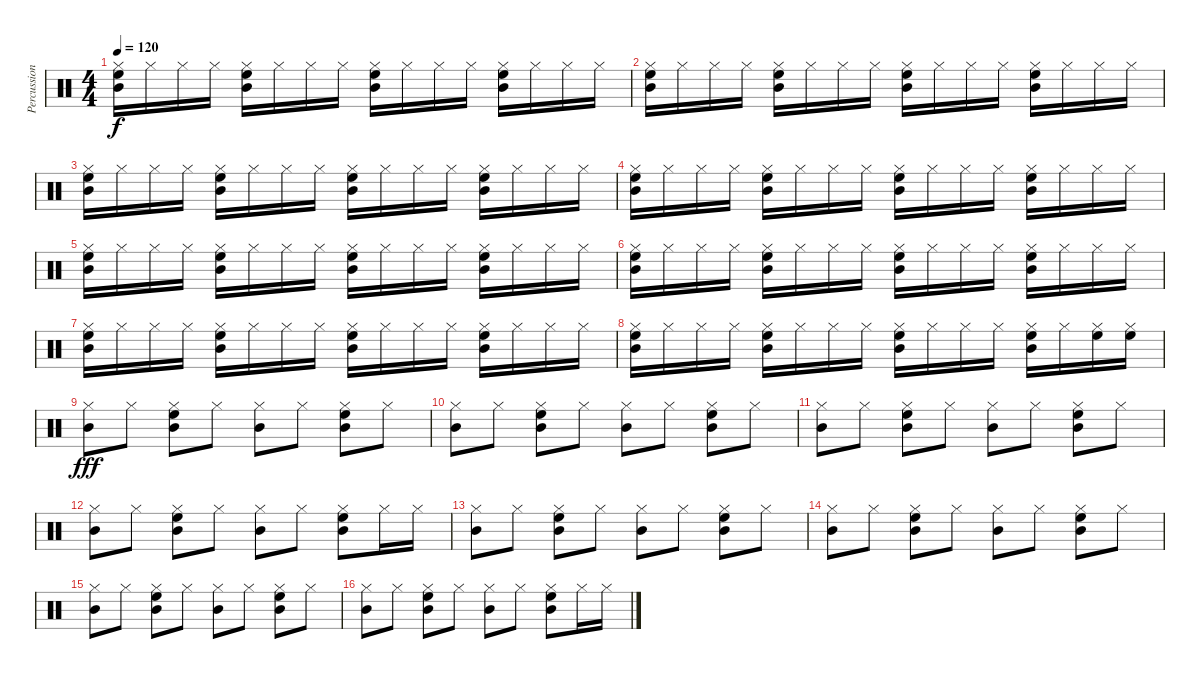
\track ("Percussion" "Percussion") {instrument percussion}
\staff {score}
\articulation defaults
\ts (4 4)
\tempo 120
\clef neutral
\ks c
("Hi-Hat (closed)" "Mid Tom (hit)" "High Floor Tom (hit)").16{dy f} "Hi-Hat (closed)".16 "Hi-Hat (closed)".16 "Hi-Hat (closed)".16 ("Hi-Hat (closed)" "Mid Tom (hit)" "High Floor Tom (hit)").16 "Hi-Hat (closed)".16 "Hi-Hat (closed)".16 "Hi-Hat (closed)".16 ("Hi-Hat (closed)" "Mid Tom (hit)" "High Floor Tom (hit)").16 "Hi-Hat (closed)".16 "Hi-Hat (closed)".16 "Hi-Hat (closed)".16 ("Hi-Hat (closed)" "Mid Tom (hit)" "High Floor Tom (hit)").16 "Hi-Hat (closed)".16 "Hi-Hat (closed)".16 "Hi-Hat (closed)".16 |
("Hi-Hat (closed)" "Mid Tom (hit)" "High Floor Tom (hit)").16 "Hi-Hat (closed)".16 "Hi-Hat (closed)".16 "Hi-Hat (closed)".16 ("Hi-Hat (closed)" "Mid Tom (hit)" "High Floor Tom (hit)").16 "Hi-Hat (closed)".16 "Hi-Hat (closed)".16 "Hi-Hat (closed)".16 ("Hi-Hat (closed)" "Mid Tom (hit)" "High Floor Tom (hit)").16 "Hi-Hat (closed)".16 "Hi-Hat (closed)".16 "Hi-Hat (closed)".16 ("Hi-Hat (closed)" "Mid Tom (hit)" "High Floor Tom (hit)").16 "Hi-Hat (closed)".16 "Hi-Hat (closed)".16 "Hi-Hat (closed)".16 |
("Hi-Hat (closed)" "Mid Tom (hit)" "High Floor Tom (hit)").16 "Hi-Hat (closed)".16 "Hi-Hat (closed)".16 "Hi-Hat (closed)".16 ("Hi-Hat (closed)" "Mid Tom (hit)" "High Floor Tom (hit)").16 "Hi-Hat (closed)".16 "Hi-Hat (closed)".16 "Hi-Hat (closed)".16 ("Hi-Hat (closed)" "Mid Tom (hit)" "High Floor Tom (hit)").16 "Hi-Hat (closed)".16 "Hi-Hat (closed)".16 "Hi-Hat (closed)".16 ("Hi-Hat (closed)" "Mid Tom (hit)" "High Floor Tom (hit)").16 "Hi-Hat (closed)".16 "Hi-Hat (closed)".16 "Hi-Hat (closed)".16 |
("Hi-Hat (closed)" "Mid Tom (hit)" "High Floor Tom (hit)").16 "Hi-Hat (closed)".16 "Hi-Hat (closed)".16 "Hi-Hat (closed)".16 ("Hi-Hat (closed)" "Mid Tom (hit)" "High Floor Tom (hit)").16 "Hi-Hat (closed)".16 "Hi-Hat (closed)".16 "Hi-Hat (closed)".16 ("Hi-Hat (closed)" "Mid Tom (hit)" "High Floor Tom (hit)").16 "Hi-Hat (closed)".16 "Hi-Hat (closed)".16 "Hi-Hat (closed)".16 ("Hi-Hat (closed)" "Mid Tom (hit)" "High Floor Tom (hit)").16 "Hi-Hat (closed)".16 "Hi-Hat (closed)".16 "Hi-Hat (closed)".16 |
("Hi-Hat (closed)" "Mid Tom (hit)" "High Floor Tom (hit)").16 "Hi-Hat (closed)".16 "Hi-Hat (closed)".16 "Hi-Hat (closed)".16 ("Hi-Hat (closed)" "Mid Tom (hit)" "High Floor Tom (hit)").16 "Hi-Hat (closed)".16 "Hi-Hat (closed)".16 "Hi-Hat (closed)".16 ("Hi-Hat (closed)" "Mid Tom (hit)" "High Floor Tom (hit)").16 "Hi-Hat (closed)".16 "Hi-Hat (closed)".16 "Hi-Hat (closed)".16 ("Hi-Hat (closed)" "Mid Tom (hit)" "High Floor Tom (hit)").16 "Hi-Hat (closed)".16 "Hi-Hat (closed)".16 "Hi-Hat (closed)".16 |
("Hi-Hat (closed)" "Mid Tom (hit)" "High Floor Tom (hit)").16 "Hi-Hat (closed)".16 "Hi-Hat (closed)".16 "Hi-Hat (closed)".16 ("Hi-Hat (closed)" "Mid Tom (hit)" "High Floor Tom (hit)").16 "Hi-Hat (closed)".16 "Hi-Hat (closed)".16 "Hi-Hat (closed)".16 ("Hi-Hat (closed)" "Mid Tom (hit)" "High Floor Tom (hit)").16 "Hi-Hat (closed)".16 "Hi-Hat (closed)".16 "Hi-Hat (closed)".16 ("Hi-Hat (closed)" "Mid Tom (hit)" "High Floor Tom (hit)").16 "Hi-Hat (closed)".16 "Hi-Hat (closed)".16 "Hi-Hat (closed)".16 |
("Hi-Hat (closed)" "Mid Tom (hit)" "High Floor Tom (hit)").16 "Hi-Hat (closed)".16 "Hi-Hat (closed)".16 "Hi-Hat (closed)".16 ("Hi-Hat (closed)" "Mid Tom (hit)" "High Floor Tom (hit)").16 "Hi-Hat (closed)".16 "Hi-Hat (closed)".16 "Hi-Hat (closed)".16 ("Hi-Hat (closed)" "Mid Tom (hit)" "High Floor Tom (hit)").16 "Hi-Hat (closed)".16 "Hi-Hat (closed)".16 "Hi-Hat (closed)".16 ("Hi-Hat (closed)" "Mid Tom (hit)" "High Floor Tom (hit)").16 "Hi-Hat (closed)".16 "Hi-Hat (closed)".16 "Hi-Hat (closed)".16 |
("Hi-Hat (closed)" "Mid Tom (hit)" "High Floor Tom (hit)").16 "Hi-Hat (closed)".16 "Hi-Hat (closed)".16 "Hi-Hat (closed)".16 ("Hi-Hat (closed)" "Mid Tom (hit)" "High Floor Tom (hit)").16 "Hi-Hat (closed)".16 "Hi-Hat (closed)".16 "Hi-Hat (closed)".16 ("Hi-Hat (closed)" "Mid Tom (hit)" "High Floor Tom (hit)").16 "Hi-Hat (closed)".16 "Hi-Hat (closed)".16 "Hi-Hat (closed)".16 ("Hi-Hat (closed)" "Mid Tom (hit)" "High Floor Tom (hit)").16 "Hi-Hat (closed)".16 ("Hi-Hat (closed)" "High Floor Tom (hit)").16 ("Hi-Hat (closed)" "High Floor Tom (hit)").16 |
("Hi-Hat (closed)" "Mid Tom (hit)").8{dy fff} "Hi-Hat (closed)".8 ("Hi-Hat (closed)" "Mid Tom (hit)" "High Floor Tom (hit)").8 "Hi-Hat (closed)".8 ("Hi-Hat (closed)" "Mid Tom (hit)").8 "Hi-Hat (closed)".8 ("Hi-Hat (closed)" "Mid Tom (hit)" "High Floor Tom (hit)").8 "Hi-Hat (closed)".8 |
("Hi-Hat (closed)" "Mid Tom (hit)").8 "Hi-Hat (closed)".8 ("Hi-Hat (closed)" "Mid Tom (hit)" "High Floor Tom (hit)").8 "Hi-Hat (closed)".8 ("Hi-Hat (closed)" "Mid Tom (hit)").8 "Hi-Hat (closed)".8 ("Hi-Hat (closed)" "Mid Tom (hit)" "High Floor Tom (hit)").8 "Hi-Hat (closed)".8 |
("Hi-Hat (closed)" "Mid Tom (hit)").8 "Hi-Hat (closed)".8 ("Hi-Hat (closed)" "Mid Tom (hit)" "High Floor Tom (hit)").8 "Hi-Hat (closed)".8 ("Hi-Hat (closed)" "Mid Tom (hit)").8 "Hi-Hat (closed)".8 ("Hi-Hat (closed)" "Mid Tom (hit)" "High Floor Tom (hit)").8 "Hi-Hat (closed)".8 |
("Hi-Hat (closed)" "Mid Tom (hit)").8 "Hi-Hat (closed)".8 ("Hi-Hat (closed)" "Mid Tom (hit)" "High Floor Tom (hit)").8 "Hi-Hat (closed)".8 ("Hi-Hat (closed)" "Mid Tom (hit)").8 "Hi-Hat (closed)".8 ("Hi-Hat (closed)" "Mid Tom (hit)" "High Floor Tom (hit)").8 "Hi-Hat (closed)".16 "Hi-Hat (closed)".16 |
("Hi-Hat (closed)" "Mid Tom (hit)").8 "Hi-Hat (closed)".8 ("Hi-Hat (closed)" "Mid Tom (hit)" "High Floor Tom (hit)").8 "Hi-Hat (closed)".8 ("Hi-Hat (closed)" "Mid Tom (hit)").8 "Hi-Hat (closed)".8 ("Hi-Hat (closed)" "Mid Tom (hit)" "High Floor Tom (hit)").8 "Hi-Hat (closed)".8 |
("Hi-Hat (closed)" "Mid Tom (hit)").8 "Hi-Hat (closed)".8 ("Hi-Hat (closed)" "Mid Tom (hit)" "High Floor Tom (hit)").8 "Hi-Hat (closed)".8 ("Hi-Hat (closed)" "Mid Tom (hit)").8 "Hi-Hat (closed)".8 ("Hi-Hat (closed)" "Mid Tom (hit)" "High Floor Tom (hit)").8 "Hi-Hat (closed)".8 |
("Hi-Hat (closed)" "Mid Tom (hit)").8 "Hi-Hat (closed)".8 ("Hi-Hat (closed)" "Mid Tom (hit)" "High Floor Tom (hit)").8 "Hi-Hat (closed)".8 ("Hi-Hat (closed)" "Mid Tom (hit)").8 "Hi-Hat (closed)".8 ("Hi-Hat (closed)" "Mid Tom (hit)" "High Floor Tom (hit)").8 "Hi-Hat (closed)".8 |
("Hi-Hat (closed)" "Mid Tom (hit)").8 "Hi-Hat (closed)".8 ("Hi-Hat (closed)" "Mid Tom (hit)" "High Floor Tom (hit)").8 "Hi-Hat (closed)".8 ("Hi-Hat (closed)" "Mid Tom (hit)").8 "Hi-Hat (closed)".8 ("Hi-Hat (closed)" "Mid Tom (hit)" "High Floor Tom (hit)").8 "Hi-Hat (closed)".16 "Hi-Hat (closed)".16
